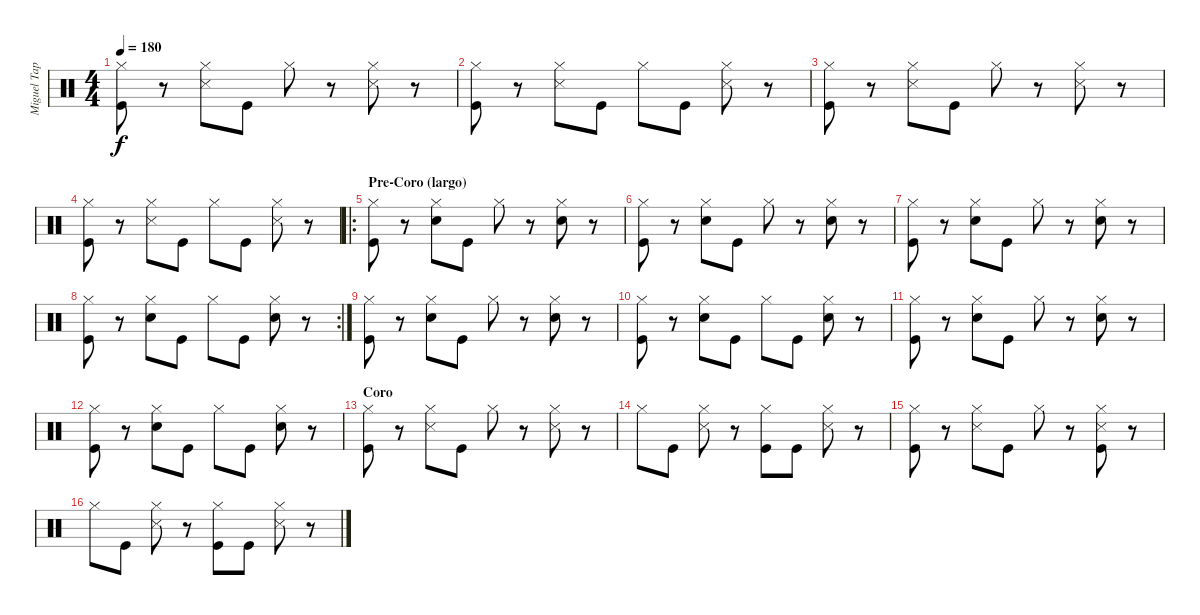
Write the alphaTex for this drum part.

\track ("Miguel Tapia (Batería)" "Miguel Tap") {instrument percussion}
\staff {score}
\articulation defaults
\ts (4 4)
\tempo 180
\clef neutral
\ks c
("Hi-Hat (closed)" "Kick (hit)").8{dy f} r.8 ("Hi-Hat (closed)" "Snare (side stick) 3").8 "Kick (hit)".8 "Hi-Hat (closed)".8 r.8 ("Hi-Hat (closed)" "Snare (side stick) 3").8 r.8 |
("Hi-Hat (closed)" "Kick (hit)").8 r.8 ("Hi-Hat (closed)" "Snare (side stick) 3").8 "Kick (hit)".8 "Hi-Hat (closed)".8 "Kick (hit)".8 ("Hi-Hat (closed)" "Snare (side stick) 3").8 r.8 |
("Hi-Hat (closed)" "Kick (hit)").8 r.8 ("Hi-Hat (closed)" "Snare (side stick) 3").8 "Kick (hit)".8 "Hi-Hat (closed)".8 r.8 ("Hi-Hat (closed)" "Snare (side stick) 3").8 r.8 |
("Hi-Hat (closed)" "Kick (hit)").8 r.8 ("Hi-Hat (closed)" "Snare (side stick) 3").8 "Kick (hit)".8 "Hi-Hat (closed)".8 "Kick (hit)".8 ("Hi-Hat (closed)" "Snare (side stick) 3").8 r.8 |
\ro
\section ("" "Pre-Coro (largo)")
("Hi-Hat (closed)" "Kick (hit)").8 r.8 ("Hi-Hat (closed)" "Snare (hit) 2").8 "Kick (hit)".8 "Hi-Hat (closed)".8 r.8 ("Hi-Hat (closed)" "Snare (hit) 2").8 r.8 |
("Hi-Hat (closed)" "Kick (hit)").8 r.8 ("Hi-Hat (closed)" "Snare (hit) 2").8 "Kick (hit)".8 "Hi-Hat (closed)".8 r.8 ("Hi-Hat (closed)" "Snare (hit) 2").8 r.8 |
("Hi-Hat (closed)" "Kick (hit)").8 r.8 ("Hi-Hat (closed)" "Snare (hit) 2").8 "Kick (hit)".8 "Hi-Hat (closed)".8 r.8 ("Hi-Hat (closed)" "Snare (hit) 2").8 r.8 |
\rc 2
("Hi-Hat (closed)" "Kick (hit)").8 r.8 ("Hi-Hat (closed)" "Snare (hit) 2").8 "Kick (hit)".8 "Hi-Hat (closed)".8 "Kick (hit)".8 ("Hi-Hat (closed)" "Snare (hit) 2").8 r.8 |
("Hi-Hat (closed)" "Kick (hit)").8 r.8 ("Hi-Hat (closed)" "Snare (hit) 2").8 "Kick (hit)".8 "Hi-Hat (closed)".8 r.8 ("Hi-Hat (closed)" "Snare (hit) 2").8 r.8 |
("Hi-Hat (closed)" "Kick (hit)").8 r.8 ("Hi-Hat (closed)" "Snare (hit) 2").8 "Kick (hit)".8 "Hi-Hat (closed)".8 "Kick (hit)".8 ("Hi-Hat (closed)" "Snare (hit) 2").8 r.8 |
("Hi-Hat (closed)" "Kick (hit)").8 r.8 ("Hi-Hat (closed)" "Snare (hit) 2").8 "Kick (hit)".8 "Hi-Hat (closed)".8 r.8 ("Hi-Hat (closed)" "Snare (hit) 2").8 r.8 |
("Hi-Hat (closed)" "Kick (hit)").8 r.8 ("Hi-Hat (closed)" "Snare (hit) 2").8 "Kick (hit)".8 "Hi-Hat (closed)".8 "Kick (hit)".8 ("Hi-Hat (closed)" "Snare (hit) 2").8 r.8 |
\section ("" "Coro")
("Hi-Hat (closed)" "Kick (hit)").8 r.8 ("Hi-Hat (closed)" "Snare (side stick) 3").8 "Kick (hit)".8 "Hi-Hat (closed)".8 r.8 ("Hi-Hat (closed)" "Snare (side stick) 3").8 r.8 |
"Hi-Hat (closed)".8 "Kick (hit)".8 ("Hi-Hat (closed)" "Snare (side stick) 3").8 r.8 ("Hi-Hat (closed)" "Kick (hit)").8 "Kick (hit)".8 ("Hi-Hat (closed)" "Snare (side stick) 3").8 r.8 |
("Hi-Hat (closed)" "Kick (hit)").8 r.8 ("Hi-Hat (closed)" "Snare (side stick) 3").8 "Kick (hit)".8 "Hi-Hat (closed)".8 r.8 ("Hi-Hat (closed)" "Snare (side stick) 3" "Kick (hit)").8 r.8 |
"Hi-Hat (closed)".8 "Kick (hit)".8 ("Hi-Hat (closed)" "Snare (side stick) 3").8 r.8 ("Hi-Hat (closed)" "Kick (hit)").8 "Kick (hit)".8 ("Hi-Hat (closed)" "Snare (side stick) 3").8 r.8
